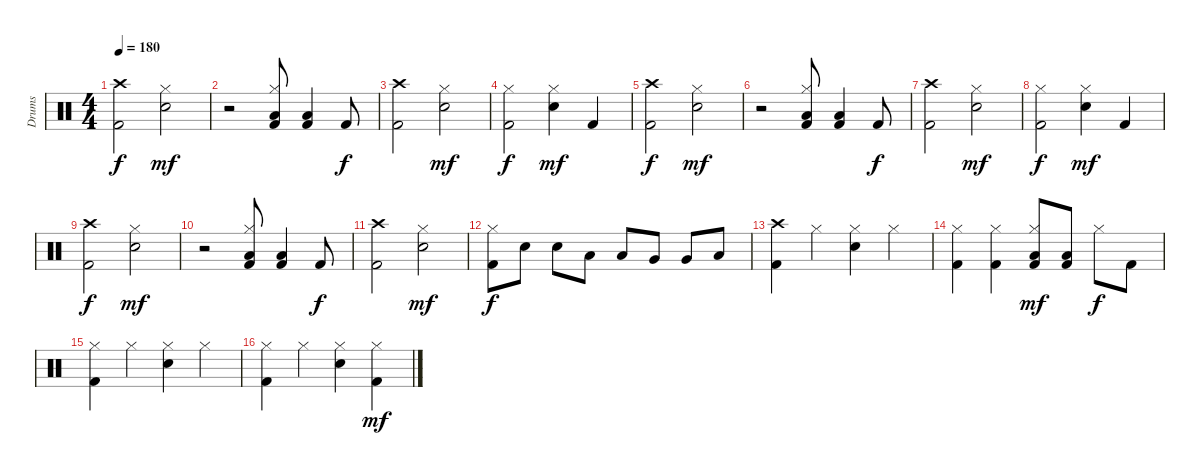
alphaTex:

\track ("Drums" "Drums") {instrument percussion}
\staff {score}
\articulation defaults
\ts (4 4)
\tempo 180
\clef neutral
\ks c
("Crash high (hit)" "Kick (hit) 2").2{dy f} ("Hi-Hat (closed)" "Snare (hit) 2").2{dy mf} |
r.2 ("Hi-Hat (closed)" "Low Floor Tom (hit)" "Kick (hit) 2").8 ("Low Floor Tom (hit)" "Kick (hit) 2").4 "Kick (hit) 2".8{dy f} |
("Crash high (hit)" "Kick (hit) 2").2 ("Hi-Hat (closed)" "Snare (hit) 2").2{dy mf} |
("Hi-Hat (closed)" "Kick (hit) 2").2{dy f} ("Hi-Hat (closed)" "Snare (hit) 2").4{dy mf} "Kick (hit) 2".4 |
("Crash high (hit)" "Kick (hit) 2").2{dy f} ("Hi-Hat (closed)" "Snare (hit) 2").2{dy mf} |
r.2 ("Hi-Hat (closed)" "Low Floor Tom (hit)" "Kick (hit) 2").8 ("Low Floor Tom (hit)" "Kick (hit) 2").4 "Kick (hit) 2".8{dy f} |
("Crash high (hit)" "Kick (hit) 2").2 ("Hi-Hat (closed)" "Snare (hit) 2").2{dy mf} |
("Hi-Hat (closed)" "Kick (hit) 2").2{dy f} ("Hi-Hat (closed)" "Snare (hit) 2").4{dy mf} "Kick (hit) 2".4 |
("Crash high (hit)" "Kick (hit) 2").2{dy f} ("Hi-Hat (closed)" "Snare (hit) 2").2{dy mf} |
r.2 ("Hi-Hat (closed)" "Low Floor Tom (hit)" "Kick (hit) 2").8 ("Low Floor Tom (hit)" "Kick (hit) 2").4 "Kick (hit) 2".8{dy f} |
("Crash high (hit)" "Kick (hit) 2").2 ("Hi-Hat (closed)" "Snare (hit) 2").2{dy mf} |
("Hi-Hat (closed)" "Kick (hit) 2").8{dy f} "Snare (hit) 2".8 "Snare (hit) 2".8 "Low Tom (hit)".8 "Low Tom (hit)".8 "Very Low Tom (hit)".8 "Very Low Tom (hit)".8 "Low Floor Tom (hit)".8 |
("Crash high (hit)" "Kick (hit) 2").4 "Hi-Hat (closed)".4 ("Hi-Hat (closed)" "Snare (hit) 2").4 "Hi-Hat (closed)".4 |
("Hi-Hat (closed)" "Kick (hit) 2").4 ("Hi-Hat (closed)" "Kick (hit) 2").4 ("Hi-Hat (closed)" "Low Floor Tom (hit)" "Kick (hit) 2").8{dy mf} ("Low Floor Tom (hit)" "Kick (hit) 2").8 "Hi-Hat (closed)".8{dy f} "Kick (hit) 2".8 |
("Hi-Hat (closed)" "Kick (hit) 2").4 "Hi-Hat (closed)".4 ("Hi-Hat (closed)" "Snare (hit) 2").4 "Hi-Hat (closed)".4 |
("Hi-Hat (closed)" "Kick (hit) 2").4 "Hi-Hat (closed)".4 ("Hi-Hat (closed)" "Snare (hit) 2").4 ("Hi-Hat (closed)" "Kick (hit) 2").4{dy mf}
